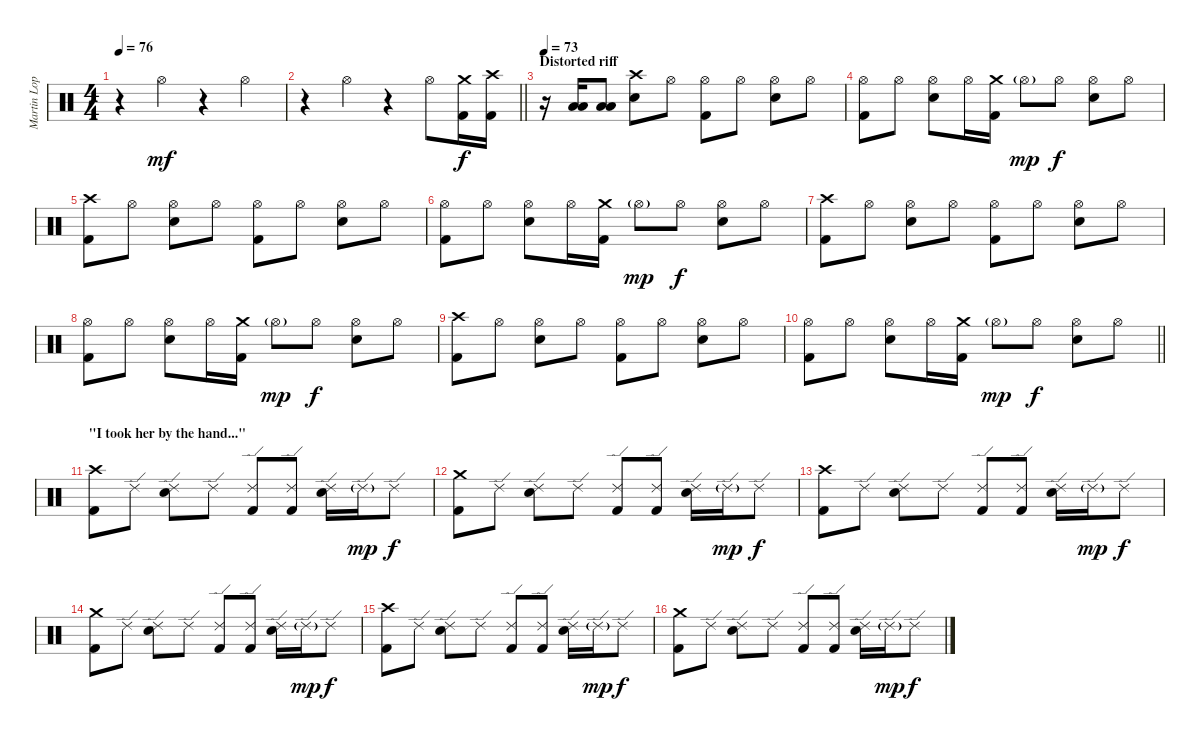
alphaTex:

\track ("Martin Lopez" "Martin Lop") {instrument percussion}
\staff {score}
\articulation defaults
\ts (4 4)
\tempo 76
\clef neutral
\ks c
r.4{dy f} "Hi-Hat (open)".4{dy mf} r.4 "Hi-Hat (open)".4 |
\barLineRight lightlight
r.4 "Hi-Hat (open)".4 r.4 "Hi-Hat (open)".8 ("Crash medium (hit)" "Kick (hit) 2").16{dy f} ("Crash high (hit)" "Kick (hit) 2").16 |
\section ("" "Distorted riff")
\tempo 73
r.16 ("Low Tom (hit)" "Low Tom (hit)").16 ("Low Tom (hit)" "Low Tom (hit)").8 ("Crash high (hit)" "Electric Snare (hit)").8 "Hi-Hat (open)".8 ("Hi-Hat (open)" "Kick (hit) 2").8 "Hi-Hat (open)".8 ("Hi-Hat (open)" "Electric Snare (hit)").8 "Hi-Hat (open)".8 |
("Hi-Hat (open)" "Kick (hit) 2").8 "Hi-Hat (open)".8 ("Hi-Hat (open)" "Electric Snare (hit)").8 "Hi-Hat (open)".16 ("Crash medium (hit)" "Kick (hit) 2").16 "Hi-Hat (open)"{g}.8{dy mp} "Hi-Hat (open)".8{dy f} ("Hi-Hat (open)" "Electric Snare (hit)").8 "Hi-Hat (open)".8 |
("Crash high (hit)" "Kick (hit) 2").8 "Hi-Hat (open)".8 ("Hi-Hat (open)" "Electric Snare (hit)").8 "Hi-Hat (open)".8 ("Hi-Hat (open)" "Kick (hit) 2").8 "Hi-Hat (open)".8 ("Hi-Hat (open)" "Electric Snare (hit)").8 "Hi-Hat (open)".8 |
("Hi-Hat (open)" "Kick (hit) 2").8 "Hi-Hat (open)".8 ("Hi-Hat (open)" "Electric Snare (hit)").8 "Hi-Hat (open)".16 ("Crash medium (hit)" "Kick (hit) 2").16 "Hi-Hat (open)"{g}.8{dy mp} "Hi-Hat (open)".8{dy f} ("Hi-Hat (open)" "Electric Snare (hit)").8 "Hi-Hat (open)".8 |
("Crash high (hit)" "Kick (hit) 2").8 "Hi-Hat (open)".8 ("Hi-Hat (open)" "Electric Snare (hit)").8 "Hi-Hat (open)".8 ("Hi-Hat (open)" "Kick (hit) 2").8 "Hi-Hat (open)".8 ("Hi-Hat (open)" "Electric Snare (hit)").8 "Hi-Hat (open)".8 |
("Hi-Hat (open)" "Kick (hit) 2").8 "Hi-Hat (open)".8 ("Hi-Hat (open)" "Electric Snare (hit)").8 "Hi-Hat (open)".16 ("Crash medium (hit)" "Kick (hit) 2").16 "Hi-Hat (open)"{g}.8{dy mp} "Hi-Hat (open)".8{dy f} ("Hi-Hat (open)" "Electric Snare (hit)").8 "Hi-Hat (open)".8 |
("Crash high (hit)" "Kick (hit) 2").8 "Hi-Hat (open)".8 ("Hi-Hat (open)" "Electric Snare (hit)").8 "Hi-Hat (open)".8 ("Hi-Hat (open)" "Kick (hit) 2").8 "Hi-Hat (open)".8 ("Hi-Hat (open)" "Electric Snare (hit)").8 "Hi-Hat (open)".8 |
\barLineRight lightlight
("Hi-Hat (open)" "Kick (hit) 2").8 "Hi-Hat (open)".8 ("Hi-Hat (open)" "Electric Snare (hit)").8 "Hi-Hat (open)".16 ("Crash medium (hit)" "Kick (hit) 2").16 "Hi-Hat (open)"{g}.8{dy mp} "Hi-Hat (open)".8{dy f} ("Hi-Hat (open)" "Electric Snare (hit)").8 "Hi-Hat (open)".8 |
\section ("" "\"I took her by the hand...\"")
("Crash high (hit)" "Kick (hit) 2").8 "Ride (edge) 2".8 ("Ride (edge) 2" "Electric Snare (hit)").8 "Ride (edge) 2".8 ("Ride (edge) 2" "Kick (hit) 2").8 ("Ride (edge) 2" "Kick (hit) 2").8 ("Ride (edge) 2" "Electric Snare (hit)").16 "Ride (edge) 2"{g}.16{dy mp} "Ride (edge) 2".8{dy f} |
("Crash medium (hit)" "Kick (hit) 2").8 "Ride (edge) 2".8 ("Ride (edge) 2" "Electric Snare (hit)").8 "Ride (edge) 2".8 ("Ride (edge) 2" "Kick (hit) 2").8 ("Ride (edge) 2" "Kick (hit) 2").8 ("Ride (edge) 2" "Electric Snare (hit)").16 "Ride (edge) 2"{g}.16{dy mp} "Ride (edge) 2".8{dy f} |
("Crash high (hit)" "Kick (hit) 2").8 "Ride (edge) 2".8 ("Ride (edge) 2" "Electric Snare (hit)").8 "Ride (edge) 2".8 ("Ride (edge) 2" "Kick (hit) 2").8 ("Ride (edge) 2" "Kick (hit) 2").8 ("Ride (edge) 2" "Electric Snare (hit)").16 "Ride (edge) 2"{g}.16{dy mp} "Ride (edge) 2".8{dy f} |
("Crash medium (hit)" "Kick (hit) 2").8 "Ride (edge) 2".8 ("Ride (edge) 2" "Electric Snare (hit)").8 "Ride (edge) 2".8 ("Ride (edge) 2" "Kick (hit) 2").8 ("Ride (edge) 2" "Kick (hit) 2").8 ("Ride (edge) 2" "Electric Snare (hit)").16 "Ride (edge) 2"{g}.16{dy mp} "Ride (edge) 2".8{dy f} |
("Crash high (hit)" "Kick (hit) 2").8 "Ride (edge) 2".8 ("Ride (edge) 2" "Electric Snare (hit)").8 "Ride (edge) 2".8 ("Ride (edge) 2" "Kick (hit) 2").8 ("Ride (edge) 2" "Kick (hit) 2").8 ("Ride (edge) 2" "Electric Snare (hit)").16 "Ride (edge) 2"{g}.16{dy mp} "Ride (edge) 2".8{dy f} |
("Crash medium (hit)" "Kick (hit) 2").8 "Ride (edge) 2".8 ("Ride (edge) 2" "Electric Snare (hit)").8 "Ride (edge) 2".8 ("Ride (edge) 2" "Kick (hit) 2").8 ("Ride (edge) 2" "Kick (hit) 2").8 ("Ride (edge) 2" "Electric Snare (hit)").16 "Ride (edge) 2"{g}.16{dy mp} "Ride (edge) 2".8{dy f}
